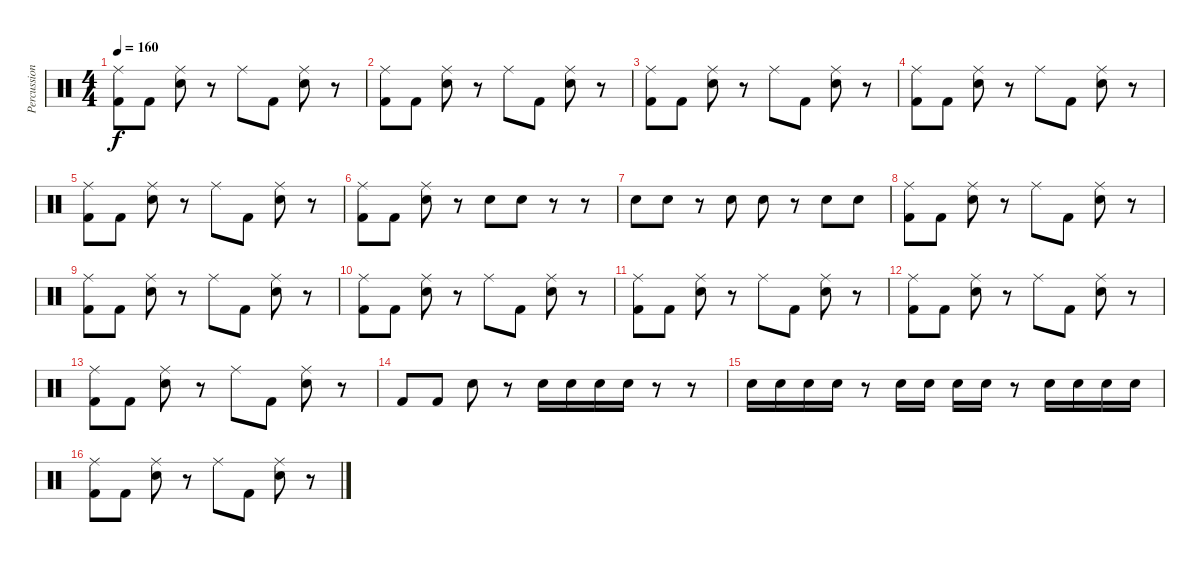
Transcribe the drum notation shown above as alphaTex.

\track ("Percussion" "Percussion") {instrument percussion}
\staff {score}
\articulation defaults
\ts (4 4)
\tempo 160
\clef neutral
\ks c
("Ride (middle)" "Kick (hit) 2").8{dy f} "Kick (hit) 2".8 ("Ride (middle)" "Electric Snare (hit)").8 r.8 "Ride (middle)".8 "Kick (hit) 2".8 ("Ride (middle)" "Electric Snare (hit)").8 r.8 |
("Ride (middle)" "Kick (hit) 2").8 "Kick (hit) 2".8 ("Ride (middle)" "Electric Snare (hit)").8 r.8 "Ride (middle)".8 "Kick (hit) 2".8 ("Ride (middle)" "Electric Snare (hit)").8 r.8 |
("Ride (middle)" "Kick (hit) 2").8 "Kick (hit) 2".8 ("Ride (middle)" "Electric Snare (hit)").8 r.8 "Ride (middle)".8 "Kick (hit) 2".8 ("Ride (middle)" "Electric Snare (hit)").8 r.8 |
("Ride (middle)" "Kick (hit) 2").8 "Kick (hit) 2".8 ("Ride (middle)" "Electric Snare (hit)").8 r.8 "Ride (middle)".8 "Kick (hit) 2".8 ("Ride (middle)" "Electric Snare (hit)").8 r.8 |
("Ride (middle)" "Kick (hit) 2").8 "Kick (hit) 2".8 ("Ride (middle)" "Electric Snare (hit)").8 r.8 "Ride (middle)".8 "Kick (hit) 2".8 ("Ride (middle)" "Electric Snare (hit)").8 r.8 |
("Ride (middle)" "Kick (hit) 2").8 "Kick (hit) 2".8 ("Ride (middle)" "Electric Snare (hit)").8 r.8 "Electric Snare (hit)".8 "Electric Snare (hit)".8 r.8 r.8 |
"Electric Snare (hit)".8 "Electric Snare (hit)".8 r.8 "Electric Snare (hit)".8 "Electric Snare (hit)".8 r.8 "Electric Snare (hit)".8 "Electric Snare (hit)".8 |
("Ride (middle)" "Kick (hit) 2").8 "Kick (hit) 2".8 ("Ride (middle)" "Electric Snare (hit)").8 r.8 "Ride (middle)".8 "Kick (hit) 2".8 ("Ride (middle)" "Electric Snare (hit)").8 r.8 |
("Ride (middle)" "Kick (hit) 2").8 "Kick (hit) 2".8 ("Ride (middle)" "Electric Snare (hit)").8 r.8 "Ride (middle)".8 "Kick (hit) 2".8 ("Ride (middle)" "Electric Snare (hit)").8 r.8 |
("Ride (middle)" "Kick (hit) 2").8 "Kick (hit) 2".8 ("Ride (middle)" "Electric Snare (hit)").8 r.8 "Ride (middle)".8 "Kick (hit) 2".8 ("Ride (middle)" "Electric Snare (hit)").8 r.8 |
("Ride (middle)" "Kick (hit) 2").8 "Kick (hit) 2".8 ("Ride (middle)" "Electric Snare (hit)").8 r.8 "Ride (middle)".8 "Kick (hit) 2".8 ("Ride (middle)" "Electric Snare (hit)").8 r.8 |
("Ride (middle)" "Kick (hit) 2").8 "Kick (hit) 2".8 ("Ride (middle)" "Electric Snare (hit)").8 r.8 "Ride (middle)".8 "Kick (hit) 2".8 ("Ride (middle)" "Electric Snare (hit)").8 r.8 |
("Ride (middle)" "Kick (hit) 2").8 "Kick (hit) 2".8 ("Ride (middle)" "Electric Snare (hit)").8 r.8 "Ride (middle)".8 "Kick (hit) 2".8 ("Ride (middle)" "Electric Snare (hit)").8 r.8 |
"Kick (hit) 2".8 "Kick (hit) 2".8 "Electric Snare (hit)".8 r.8 "Electric Snare (hit)".16 "Electric Snare (hit)".16 "Electric Snare (hit)".16 "Electric Snare (hit)".16 r.8 r.8 |
"Electric Snare (hit)".16 "Electric Snare (hit)".16 "Electric Snare (hit)".16 "Electric Snare (hit)".16 r.8 "Electric Snare (hit)".16 "Electric Snare (hit)".16 "Electric Snare (hit)".16 "Electric Snare (hit)".16 r.8 "Electric Snare (hit)".16 "Electric Snare (hit)".16 "Electric Snare (hit)".16 "Electric Snare (hit)".16 |
("Ride (middle)" "Kick (hit) 2").8 "Kick (hit) 2".8 ("Ride (middle)" "Electric Snare (hit)").8 r.8 "Ride (middle)".8 "Kick (hit) 2".8 ("Ride (middle)" "Electric Snare (hit)").8 r.8
